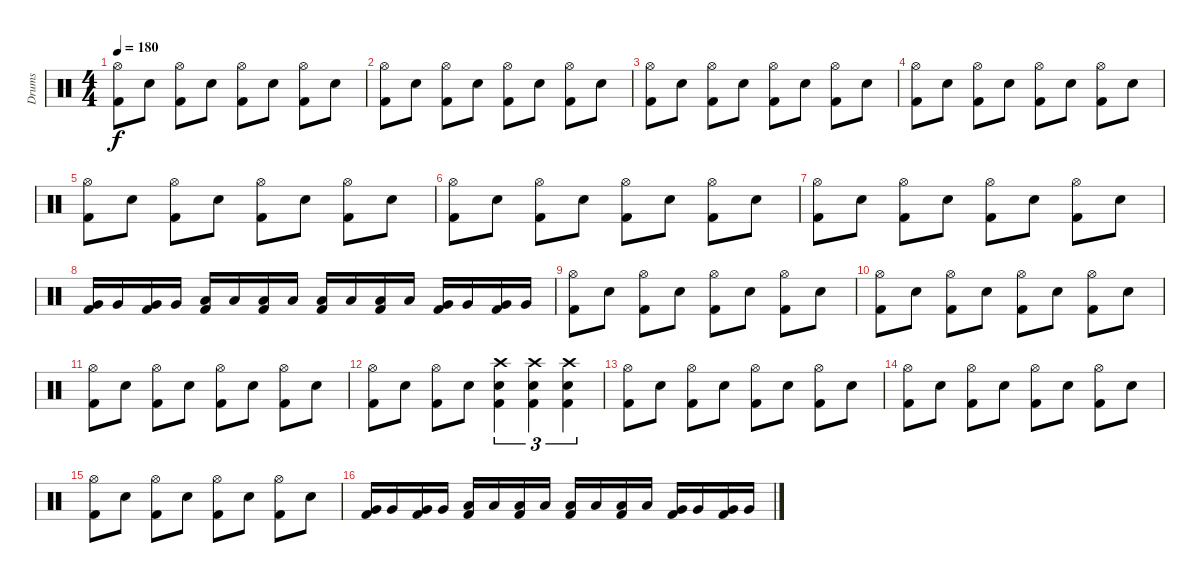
\track ("Drums" "Drums") {instrument percussion}
\staff {score}
\articulation defaults
\ts (4 4)
\tempo 180
\clef neutral
\ks c
("Kick (hit) 2" "Hi-Hat (open)").8{dy f} "Electric Snare (hit)".8 ("Kick (hit) 2" "Hi-Hat (open)").8 "Electric Snare (hit)".8 ("Kick (hit) 2" "Hi-Hat (open)").8 "Electric Snare (hit)".8 ("Kick (hit) 2" "Hi-Hat (open)").8 "Electric Snare (hit)".8 |
("Kick (hit) 2" "Hi-Hat (open)").8 "Electric Snare (hit)".8 ("Kick (hit) 2" "Hi-Hat (open)").8 "Electric Snare (hit)".8 ("Kick (hit) 2" "Hi-Hat (open)").8 "Electric Snare (hit)".8 ("Kick (hit) 2" "Hi-Hat (open)").8 "Electric Snare (hit)".8 |
("Kick (hit) 2" "Hi-Hat (open)").8 "Electric Snare (hit)".8 ("Kick (hit) 2" "Hi-Hat (open)").8 "Electric Snare (hit)".8 ("Kick (hit) 2" "Hi-Hat (open)").8 "Electric Snare (hit)".8 ("Kick (hit) 2" "Hi-Hat (open)").8 "Electric Snare (hit)".8 |
("Kick (hit) 2" "Hi-Hat (open)").8 "Electric Snare (hit)".8 ("Kick (hit) 2" "Hi-Hat (open)").8 "Electric Snare (hit)".8 ("Kick (hit) 2" "Hi-Hat (open)").8 "Electric Snare (hit)".8 ("Kick (hit) 2" "Hi-Hat (open)").8 "Electric Snare (hit)".8 |
("Kick (hit) 2" "Hi-Hat (open)").8 "Electric Snare (hit)".8 ("Kick (hit) 2" "Hi-Hat (open)").8 "Electric Snare (hit)".8 ("Kick (hit) 2" "Hi-Hat (open)").8 "Electric Snare (hit)".8 ("Kick (hit) 2" "Hi-Hat (open)").8 "Electric Snare (hit)".8 |
("Kick (hit) 2" "Hi-Hat (open)").8 "Electric Snare (hit)".8 ("Kick (hit) 2" "Hi-Hat (open)").8 "Electric Snare (hit)".8 ("Kick (hit) 2" "Hi-Hat (open)").8 "Electric Snare (hit)".8 ("Kick (hit) 2" "Hi-Hat (open)").8 "Electric Snare (hit)".8 |
("Kick (hit) 2" "Hi-Hat (open)").8 "Electric Snare (hit)".8 ("Kick (hit) 2" "Hi-Hat (open)").8 "Electric Snare (hit)".8 ("Kick (hit) 2" "Hi-Hat (open)").8 "Electric Snare (hit)".8 ("Kick (hit) 2" "Hi-Hat (open)").8 "Electric Snare (hit)".8 |
("Kick (hit) 2" "Very Low Tom (hit)").16 "Very Low Tom (hit)".16 ("Kick (hit) 2" "Very Low Tom (hit)").16 "Very Low Tom (hit)".16 ("Kick (hit) 2" "Low Tom (hit)").16 "Low Tom (hit)".16 ("Kick (hit) 2" "Low Tom (hit)").16 "Low Tom (hit)".16 ("Kick (hit) 2" "Low Floor Tom (hit)").16 "Low Floor Tom (hit)".16 ("Kick (hit) 2" "Low Floor Tom (hit)").16 "Low Floor Tom (hit)".16 ("Kick (hit) 2" "Very Low Tom (hit)").16 "Very Low Tom (hit)".16 ("Kick (hit) 2" "Very Low Tom (hit)").16 "Very Low Tom (hit)".16 |
("Kick (hit) 2" "Hi-Hat (open)").8 "Electric Snare (hit)".8 ("Kick (hit) 2" "Hi-Hat (open)").8 "Electric Snare (hit)".8 ("Kick (hit) 2" "Hi-Hat (open)").8 "Electric Snare (hit)".8 ("Kick (hit) 2" "Hi-Hat (open)").8 "Electric Snare (hit)".8 |
("Kick (hit) 2" "Hi-Hat (open)").8 "Electric Snare (hit)".8 ("Kick (hit) 2" "Hi-Hat (open)").8 "Electric Snare (hit)".8 ("Kick (hit) 2" "Hi-Hat (open)").8 "Electric Snare (hit)".8 ("Kick (hit) 2" "Hi-Hat (open)").8 "Electric Snare (hit)".8 |
("Kick (hit) 2" "Hi-Hat (open)").8 "Electric Snare (hit)".8 ("Kick (hit) 2" "Hi-Hat (open)").8 "Electric Snare (hit)".8 ("Kick (hit) 2" "Hi-Hat (open)").8 "Electric Snare (hit)".8 ("Kick (hit) 2" "Hi-Hat (open)").8 "Electric Snare (hit)".8 |
("Kick (hit) 2" "Hi-Hat (open)").8 "Electric Snare (hit)".8 ("Kick (hit) 2" "Hi-Hat (open)").8 "Electric Snare (hit)".8 ("Kick (hit) 2" "Electric Snare (hit)" "Crash high (hit)").4{tu (3 2)} ("Kick (hit) 2" "Electric Snare (hit)" "Crash high (hit)").4{tu (3 2)} ("Kick (hit) 2" "Electric Snare (hit)" "Crash high (hit)").4{tu (3 2)} |
("Kick (hit) 2" "Hi-Hat (open)").8 "Electric Snare (hit)".8 ("Kick (hit) 2" "Hi-Hat (open)").8 "Electric Snare (hit)".8 ("Kick (hit) 2" "Hi-Hat (open)").8 "Electric Snare (hit)".8 ("Kick (hit) 2" "Hi-Hat (open)").8 "Electric Snare (hit)".8 |
("Kick (hit) 2" "Hi-Hat (open)").8 "Electric Snare (hit)".8 ("Kick (hit) 2" "Hi-Hat (open)").8 "Electric Snare (hit)".8 ("Kick (hit) 2" "Hi-Hat (open)").8 "Electric Snare (hit)".8 ("Kick (hit) 2" "Hi-Hat (open)").8 "Electric Snare (hit)".8 |
("Kick (hit) 2" "Hi-Hat (open)").8 "Electric Snare (hit)".8 ("Kick (hit) 2" "Hi-Hat (open)").8 "Electric Snare (hit)".8 ("Kick (hit) 2" "Hi-Hat (open)").8 "Electric Snare (hit)".8 ("Kick (hit) 2" "Hi-Hat (open)").8 "Electric Snare (hit)".8 |
("Kick (hit) 2" "Very Low Tom (hit)").16 "Very Low Tom (hit)".16 ("Kick (hit) 2" "Very Low Tom (hit)").16 "Very Low Tom (hit)".16 ("Kick (hit) 2" "Low Tom (hit)").16 "Low Tom (hit)".16 ("Kick (hit) 2" "Low Tom (hit)").16 "Low Tom (hit)".16 ("Kick (hit) 2" "Low Floor Tom (hit)").16 "Low Floor Tom (hit)".16 ("Kick (hit) 2" "Low Floor Tom (hit)").16 "Low Floor Tom (hit)".16 ("Kick (hit) 2" "Very Low Tom (hit)").16 "Very Low Tom (hit)".16 ("Kick (hit) 2" "Very Low Tom (hit)").16 "Very Low Tom (hit)".16
